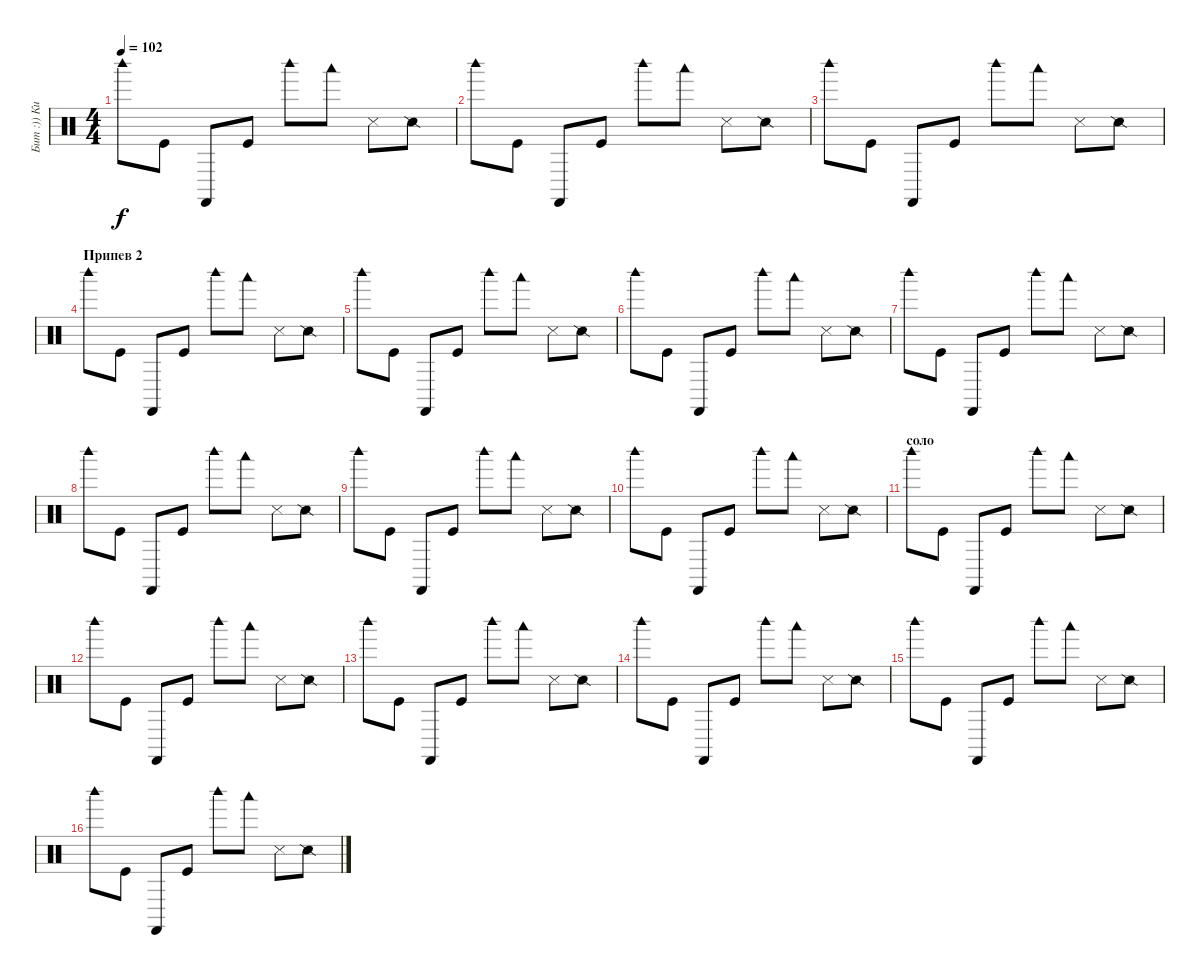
\track ("Бит :)) Кита" "Бит :)) Ки") {instrument percussion}
\staff {score}
\articulation defaults
\ts (4 4)
\tempo 102
\clef neutral
\ks c "Woodblock high (hit)".8{dy f} "Kick (hit)".8 "Castanets (hit)".8 "Kick (hit)".8 "Woodblock high (hit)".8 "Woodblock low (hit)".8 "Snare (side stick) 3".8 "Snare (side stick) 2".8
|
"Woodblock high (hit)".8 "Kick (hit)".8 "Castanets (hit)".8 "Kick (hit)".8 "Woodblock high (hit)".8 "Woodblock low (hit)".8 "Snare (side stick) 3".8 "Snare (side stick) 2".8 |
"Woodblock high (hit)".8 "Kick (hit)".8 "Castanets (hit)".8 "Kick (hit)".8 "Woodblock high (hit)".8 "Woodblock low (hit)".8 "Snare (side stick) 3".8 "Snare (side stick) 2".8 |
\section ("" "Припев 2")
"Woodblock high (hit)".8 "Kick (hit)".8 "Castanets (hit)".8 "Kick (hit)".8 "Woodblock high (hit)".8 "Woodblock low (hit)".8 "Snare (side stick) 3".8 "Snare (side stick) 2".8 |
"Woodblock high (hit)".8 "Kick (hit)".8 "Castanets (hit)".8 "Kick (hit)".8 "Woodblock high (hit)".8 "Woodblock low (hit)".8 "Snare (side stick) 3".8 "Snare (side stick) 2".8 |
"Woodblock high (hit)".8 "Kick (hit)".8 "Castanets (hit)".8 "Kick (hit)".8 "Woodblock high (hit)".8 "Woodblock low (hit)".8 "Snare (side stick) 3".8 "Snare (side stick) 2".8 |
"Woodblock high (hit)".8 "Kick (hit)".8 "Castanets (hit)".8 "Kick (hit)".8 "Woodblock high (hit)".8 "Woodblock low (hit)".8 "Snare (side stick) 3".8 "Snare (side stick) 2".8 |
"Woodblock high (hit)".8 "Kick (hit)".8 "Castanets (hit)".8 "Kick (hit)".8 "Woodblock high (hit)".8 "Woodblock low (hit)".8 "Snare (side stick) 3".8 "Snare (side stick) 2".8 |
"Woodblock high (hit)".8 "Kick (hit)".8 "Castanets (hit)".8 "Kick (hit)".8 "Woodblock high (hit)".8 "Woodblock low (hit)".8 "Snare (side stick) 3".8 "Snare (side stick) 2".8 |
"Woodblock high (hit)".8 "Kick (hit)".8 "Castanets (hit)".8 "Kick (hit)".8 "Woodblock high (hit)".8 "Woodblock low (hit)".8 "Snare (side stick) 3".8 "Snare (side stick) 2".8 |
\section ("" "соло")
"Woodblock high (hit)".8 "Kick (hit)".8 "Castanets (hit)".8 "Kick (hit)".8 "Woodblock high (hit)".8 "Woodblock low (hit)".8 "Snare (side stick) 3".8 "Snare (side stick) 2".8 |
"Woodblock high (hit)".8 "Kick (hit)".8 "Castanets (hit)".8 "Kick (hit)".8 "Woodblock high (hit)".8 "Woodblock low (hit)".8 "Snare (side stick) 3".8 "Snare (side stick) 2".8 |
"Woodblock high (hit)".8 "Kick (hit)".8 "Castanets (hit)".8 "Kick (hit)".8 "Woodblock high (hit)".8 "Woodblock low (hit)".8 "Snare (side stick) 3".8 "Snare (side stick) 2".8 |
"Woodblock high (hit)".8 "Kick (hit)".8 "Castanets (hit)".8 "Kick (hit)".8 "Woodblock high (hit)".8 "Woodblock low (hit)".8 "Snare (side stick) 3".8 "Snare (side stick) 2".8 |
"Woodblock high (hit)".8 "Kick (hit)".8 "Castanets (hit)".8 "Kick (hit)".8 "Woodblock high (hit)".8 "Woodblock low (hit)".8 "Snare (side stick) 3".8 "Snare (side stick) 2".8 |
"Woodblock high (hit)".8 "Kick (hit)".8 "Castanets (hit)".8 "Kick (hit)".8 "Woodblock high (hit)".8 "Woodblock low (hit)".8 "Snare (side stick) 3".8 "Snare (side stick) 2".8
